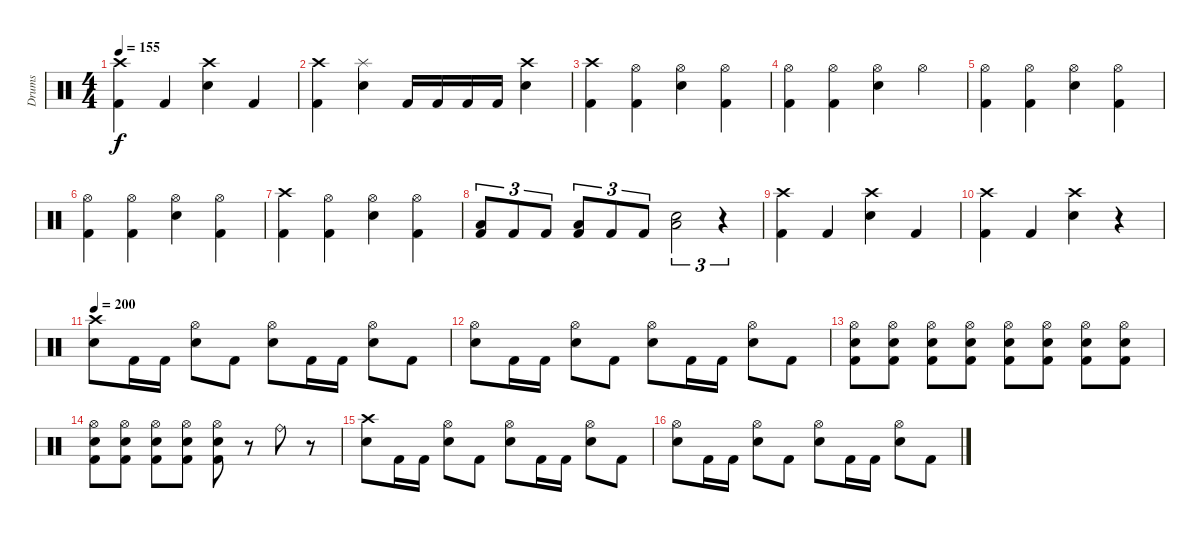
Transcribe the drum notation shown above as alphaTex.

\track ("Drums" "Drums") {instrument percussion}
\staff {score}
\articulation defaults
\ts (4 4)
\tempo 155
\clef neutral
\ks c
("Crash high (hit)" "Kick (hit) 2").4{dy f} "Kick (hit) 2".4 ("Crash high (hit)" "Snare (hit) 2").4 "Kick (hit) 2".4 |
("Crash high (hit)" "Kick (hit) 2").4 ("Splash (hit)" "Snare (hit) 2").4 "Kick (hit) 2".16 "Kick (hit) 2".16 "Kick (hit) 2".16 "Kick (hit) 2".16 ("Crash high (hit)" "Snare (hit) 2").4 |
("Crash high (hit)" "Kick (hit) 2").4 ("Hi-Hat (open)" "Kick (hit) 2").4 ("Hi-Hat (open)" "Snare (hit) 2").4 ("Hi-Hat (open)" "Kick (hit) 2").4 |
("Hi-Hat (open)" "Kick (hit) 2").4 ("Hi-Hat (open)" "Kick (hit) 2").4 ("Hi-Hat (open)" "Snare (hit) 2").4 "Hi-Hat (open)".4 |
("Hi-Hat (open)" "Kick (hit) 2").4 ("Hi-Hat (open)" "Kick (hit) 2").4 ("Hi-Hat (open)" "Snare (hit) 2").4 ("Hi-Hat (open)" "Kick (hit) 2").4 |
("Hi-Hat (open)" "Kick (hit) 2").4 ("Hi-Hat (open)" "Kick (hit) 2").4 ("Hi-Hat (open)" "Snare (hit) 2").4 ("Hi-Hat (open)" "Kick (hit) 2").4 |
("Crash high (hit)" "Kick (hit) 2").4 ("Hi-Hat (open)" "Kick (hit) 2").4 ("Hi-Hat (open)" "Snare (hit) 2").4 ("Hi-Hat (open)" "Kick (hit) 2").4 |
("Low Tom (hit)" "Kick (hit) 2").8{tu (3 2)} "Kick (hit) 2".8{tu (3 2)} "Kick (hit) 2".8{tu (3 2)} ("Low Tom (hit)" "Kick (hit) 2").8{tu (3 2)} "Kick (hit) 2".8{tu (3 2)} "Kick (hit) 2".8{tu (3 2)} ("Low Tom (hit)" "Snare (hit) 2").2{tu (3 2)} r.4{tu (3 2)} |
("Crash high (hit)" "Kick (hit) 2").4 "Kick (hit) 2".4 ("Crash high (hit)" "Snare (hit) 2").4 "Kick (hit) 2".4 |
("Crash high (hit)" "Kick (hit) 2").4 "Kick (hit) 2".4 ("Crash high (hit)" "Snare (hit) 2").4 r.4 |
\tempo 200
("Crash high (hit)" "Snare (hit) 2").8 "Kick (hit) 2".16 "Kick (hit) 2".16 ("Hi-Hat (open)" "Snare (hit) 2").8 "Kick (hit) 2".8 ("Hi-Hat (open)" "Snare (hit) 2").8 "Kick (hit) 2".16 "Kick (hit) 2".16 ("Hi-Hat (open)" "Snare (hit) 2").8 "Kick (hit) 2".8 |
("Hi-Hat (open)" "Snare (hit) 2").8 "Kick (hit) 2".16 "Kick (hit) 2".16 ("Hi-Hat (open)" "Snare (hit) 2").8 "Kick (hit) 2".8 ("Hi-Hat (open)" "Snare (hit) 2").8 "Kick (hit) 2".16 "Kick (hit) 2".16 ("Hi-Hat (open)" "Snare (hit) 2").8 "Kick (hit) 2".8 |
("Hi-Hat (open)" "Snare (hit) 2" "Kick (hit) 2").8 ("Hi-Hat (open)" "Snare (hit) 2" "Kick (hit) 2").8 ("Hi-Hat (open)" "Snare (hit) 2" "Kick (hit) 2").8 ("Hi-Hat (open)" "Snare (hit) 2" "Kick (hit) 2").8 ("Hi-Hat (open)" "Snare (hit) 2" "Kick (hit) 2").8 ("Hi-Hat (open)" "Snare (hit) 2" "Kick (hit) 2").8 ("Hi-Hat (open)" "Snare (hit) 2" "Kick (hit) 2").8 ("Hi-Hat (open)" "Snare (hit) 2" "Kick (hit) 2").8 |
("Hi-Hat (open)" "Snare (hit) 2" "Kick (hit) 2").8 ("Hi-Hat (open)" "Snare (hit) 2" "Kick (hit) 2").8 ("Hi-Hat (open)" "Snare (hit) 2" "Kick (hit) 2").8 ("Hi-Hat (open)" "Snare (hit) 2" "Kick (hit) 2").8 ("Hi-Hat (open)" "Snare (hit) 2" "Kick (hit) 2").8 r.8 "Ride (bell)".8 r.8 |
("Crash high (hit)" "Snare (hit) 2").8 "Kick (hit) 2".16 "Kick (hit) 2".16 ("Hi-Hat (open)" "Snare (hit) 2").8 "Kick (hit) 2".8 ("Hi-Hat (open)" "Snare (hit) 2").8 "Kick (hit) 2".16 "Kick (hit) 2".16 ("Hi-Hat (open)" "Snare (hit) 2").8 "Kick (hit) 2".8 |
("Hi-Hat (open)" "Snare (hit) 2").8 "Kick (hit) 2".16 "Kick (hit) 2".16 ("Hi-Hat (open)" "Snare (hit) 2").8 "Kick (hit) 2".8 ("Hi-Hat (open)" "Snare (hit) 2").8 "Kick (hit) 2".16 "Kick (hit) 2".16 ("Hi-Hat (open)" "Snare (hit) 2").8 "Kick (hit) 2".8
